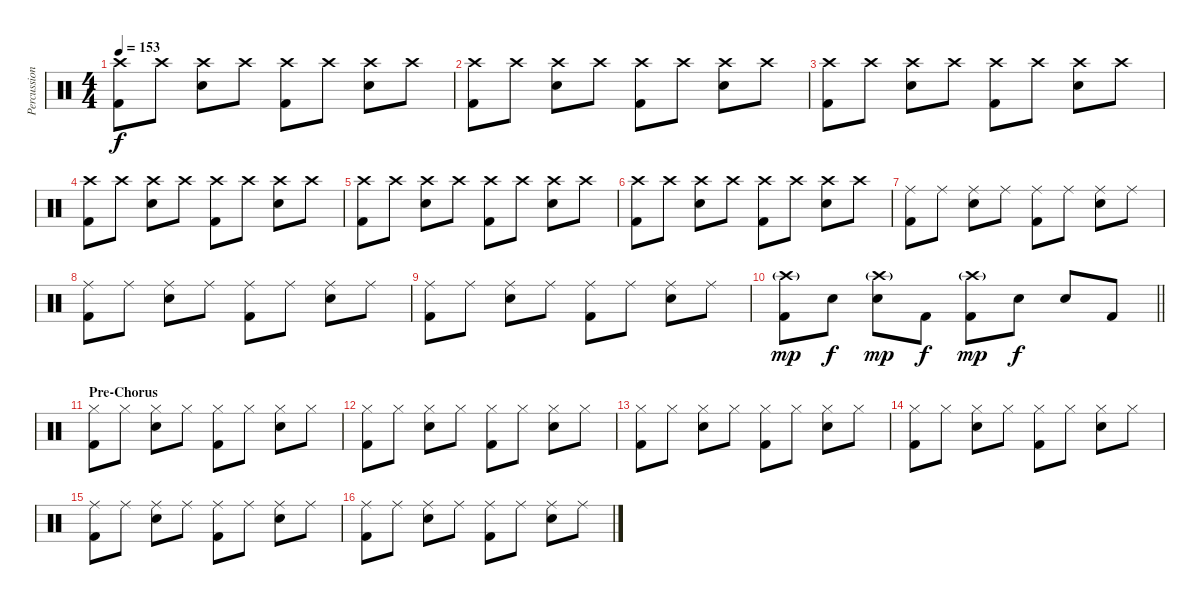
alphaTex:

\track ("Percussion" "Percussion") {instrument percussion}
\staff {score}
\articulation defaults
\ts (4 4)
\tempo 153
\clef neutral
\ks c
("Crash high (hit)" "Kick (hit) 2").8{dy f} "Crash high (hit)".8 ("Crash high (hit)" "Snare (hit) 2").8 "Crash high (hit)".8 ("Crash high (hit)" "Kick (hit) 2").8 "Crash high (hit)".8 ("Crash high (hit)" "Snare (hit) 2").8 "Crash high (hit)".8 |
("Crash high (hit)" "Kick (hit) 2").8 "Crash high (hit)".8 ("Crash high (hit)" "Snare (hit) 2").8 "Crash high (hit)".8 ("Crash high (hit)" "Kick (hit) 2").8 "Crash high (hit)".8 ("Crash high (hit)" "Snare (hit) 2").8 "Crash high (hit)".8 |
("Crash high (hit)" "Kick (hit) 2").8 "Crash high (hit)".8 ("Crash high (hit)" "Snare (hit) 2").8 "Crash high (hit)".8 ("Crash high (hit)" "Kick (hit) 2").8 "Crash high (hit)".8 ("Crash high (hit)" "Snare (hit) 2").8 "Crash high (hit)".8 |
("Crash high (hit)" "Kick (hit) 2").8 "Crash high (hit)".8 ("Crash high (hit)" "Snare (hit) 2").8 "Crash high (hit)".8 ("Crash high (hit)" "Kick (hit) 2").8 "Crash high (hit)".8 ("Crash high (hit)" "Snare (hit) 2").8 "Crash high (hit)".8 |
("Crash high (hit)" "Kick (hit) 2").8 "Crash high (hit)".8 ("Crash high (hit)" "Snare (hit) 2").8 "Crash high (hit)".8 ("Crash high (hit)" "Kick (hit) 2").8 "Crash high (hit)".8 ("Crash high (hit)" "Snare (hit) 2").8 "Crash high (hit)".8 |
("Crash high (hit)" "Kick (hit) 2").8 "Crash high (hit)".8 ("Crash high (hit)" "Snare (hit) 2").8 "Crash high (hit)".8 ("Crash high (hit)" "Kick (hit) 2").8 "Crash high (hit)".8 ("Crash high (hit)" "Snare (hit) 2").8 "Crash high (hit)".8 |
("Ride (middle)" "Kick (hit) 2").8 "Ride (middle)".8 ("Ride (middle)" "Snare (hit) 2").8 "Ride (middle)".8 ("Ride (middle)" "Kick (hit) 2").8 "Ride (middle)".8 ("Ride (middle)" "Snare (hit) 2").8 "Ride (middle)".8 |
("Ride (middle)" "Kick (hit) 2").8 "Ride (middle)".8 ("Ride (middle)" "Snare (hit) 2").8 "Ride (middle)".8 ("Ride (middle)" "Kick (hit) 2").8 "Ride (middle)".8 ("Ride (middle)" "Snare (hit) 2").8 "Ride (middle)".8 |
("Ride (middle)" "Kick (hit) 2").8 "Ride (middle)".8 ("Ride (middle)" "Snare (hit) 2").8 "Ride (middle)".8 ("Ride (middle)" "Kick (hit) 2").8 "Ride (middle)".8 ("Ride (middle)" "Snare (hit) 2").8 "Ride (middle)".8 |
\barLineRight lightlight
("Crash high (hit)"{g} "Kick (hit) 2").8{dy mp} "Snare (hit) 2".8{dy f} ("Crash high (hit)"{g} "Snare (hit) 2").8{dy mp} "Kick (hit) 2".8{dy f} ("Crash high (hit)"{g} "Kick (hit) 2").8{dy mp} "Snare (hit) 2".8{dy f} "Snare (hit) 2".8 "Kick (hit) 2".8 |
\section ("" "Pre-Chorus")
("Hi-Hat (closed)" "Kick (hit) 2").8 "Hi-Hat (closed)".8 ("Hi-Hat (closed)" "Snare (hit) 2").8 "Hi-Hat (closed)".8 ("Hi-Hat (closed)" "Kick (hit) 2").8 "Hi-Hat (closed)".8 ("Hi-Hat (closed)" "Snare (hit) 2").8 "Hi-Hat (closed)".8 |
("Hi-Hat (closed)" "Kick (hit) 2").8 "Hi-Hat (closed)".8 ("Hi-Hat (closed)" "Snare (hit) 2").8 "Hi-Hat (closed)".8 ("Hi-Hat (closed)" "Kick (hit) 2").8 "Hi-Hat (closed)".8 ("Hi-Hat (closed)" "Snare (hit) 2").8 "Hi-Hat (closed)".8 |
("Hi-Hat (closed)" "Kick (hit) 2").8 "Hi-Hat (closed)".8 ("Hi-Hat (closed)" "Snare (hit) 2").8 "Hi-Hat (closed)".8 ("Hi-Hat (closed)" "Kick (hit) 2").8 "Hi-Hat (closed)".8 ("Hi-Hat (closed)" "Snare (hit) 2").8 "Hi-Hat (closed)".8 |
("Hi-Hat (closed)" "Kick (hit) 2").8 "Hi-Hat (closed)".8 ("Hi-Hat (closed)" "Snare (hit) 2").8 "Hi-Hat (closed)".8 ("Hi-Hat (closed)" "Kick (hit) 2").8 "Hi-Hat (closed)".8 ("Hi-Hat (closed)" "Snare (hit) 2").8 "Hi-Hat (closed)".8 |
("Ride (middle)" "Kick (hit) 2").8 "Ride (middle)".8 ("Ride (middle)" "Snare (hit) 2").8 "Ride (middle)".8 ("Ride (middle)" "Kick (hit) 2").8 "Ride (middle)".8 ("Ride (middle)" "Snare (hit) 2").8 "Ride (middle)".8 |
("Ride (middle)" "Kick (hit) 2").8 "Ride (middle)".8 ("Ride (middle)" "Snare (hit) 2").8 "Ride (middle)".8 ("Ride (middle)" "Kick (hit) 2").8 "Ride (middle)".8 ("Ride (middle)" "Snare (hit) 2").8 "Ride (middle)".8
